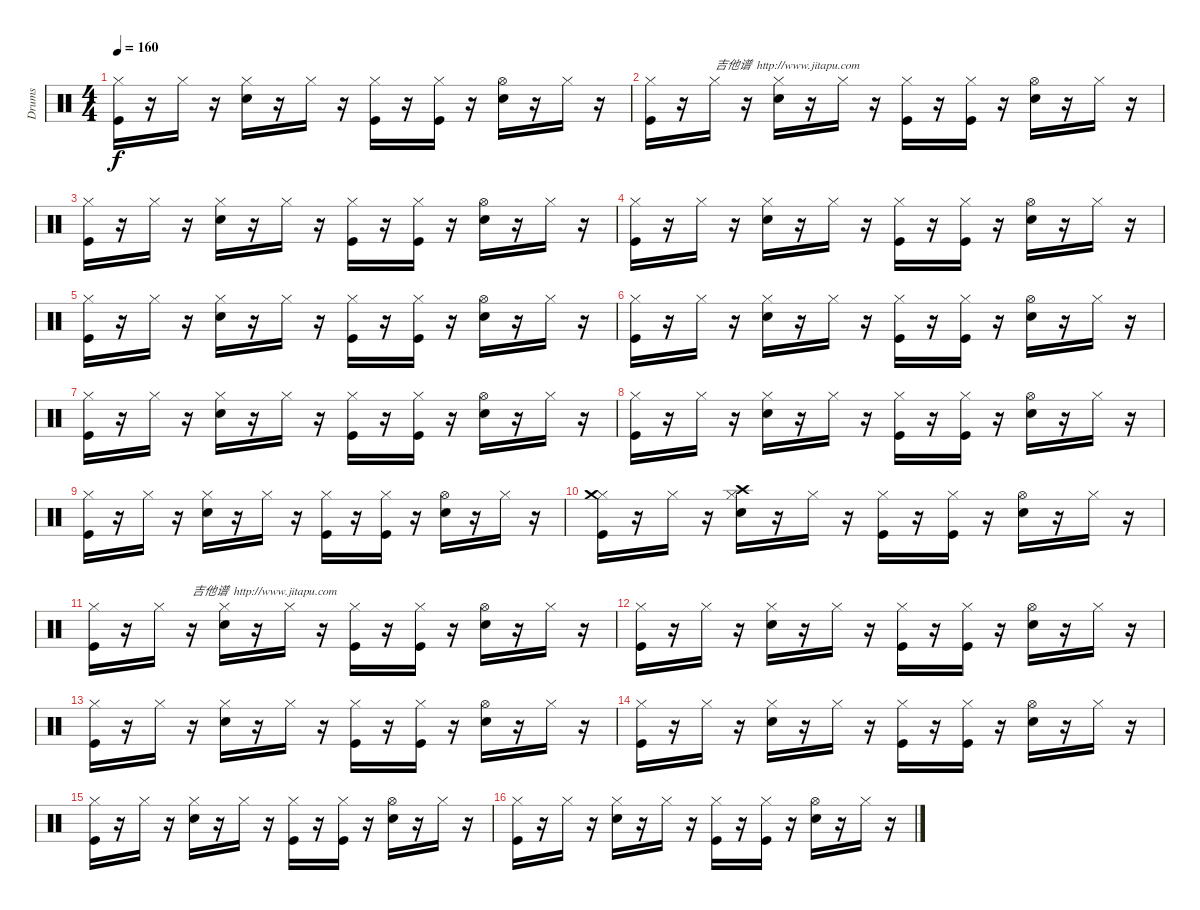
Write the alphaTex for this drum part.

\track ("Drums" "Drums") {instrument percussion}
\staff {score}
\articulation defaults
\ts (4 4)
\tempo 160
\clef neutral
\ks c
("Hi-Hat (closed)" "Kick (hit)").16{dy f} r.16 "Hi-Hat (closed)".16 r.16 ("Hi-Hat (closed)" "Snare (hit) 2").16 r.16 "Hi-Hat (closed)".16 r.16 ("Hi-Hat (closed)" "Kick (hit)").16 r.16 ("Kick (hit)" "Hi-Hat (closed)").16 r.16 ("Hi-Hat (open)" "Snare (hit) 2").16 r.16 "Hi-Hat (closed)".16 r.16 |
("Hi-Hat (closed)" "Kick (hit)").16 r.16 "Hi-Hat (closed)".16{txt "吉他谱  http://www.jitapu.com"} r.16 ("Hi-Hat (closed)" "Snare (hit) 2").16 r.16 "Hi-Hat (closed)".16 r.16 ("Hi-Hat (closed)" "Kick (hit)").16 r.16 ("Kick (hit)" "Hi-Hat (closed)").16 r.16 ("Hi-Hat (open)" "Snare (hit) 2").16 r.16 "Hi-Hat (closed)".16 r.16 |
("Hi-Hat (closed)" "Kick (hit)").16 r.16 "Hi-Hat (closed)".16 r.16 ("Hi-Hat (closed)" "Snare (hit) 2").16 r.16 "Hi-Hat (closed)".16 r.16 ("Hi-Hat (closed)" "Kick (hit)").16 r.16 ("Kick (hit)" "Hi-Hat (closed)").16 r.16 ("Hi-Hat (open)" "Snare (hit) 2").16 r.16 "Hi-Hat (closed)".16 r.16 |
("Hi-Hat (closed)" "Kick (hit)").16 r.16 "Hi-Hat (closed)".16 r.16 ("Hi-Hat (closed)" "Snare (hit) 2").16 r.16 "Hi-Hat (closed)".16 r.16 ("Hi-Hat (closed)" "Kick (hit)").16 r.16 ("Kick (hit)" "Hi-Hat (closed)").16 r.16 ("Hi-Hat (open)" "Snare (hit) 2").16 r.16 "Hi-Hat (closed)".16 r.16 |
("Hi-Hat (closed)" "Kick (hit)").16 r.16 "Hi-Hat (closed)".16 r.16 ("Hi-Hat (closed)" "Snare (hit) 2").16 r.16 "Hi-Hat (closed)".16 r.16 ("Hi-Hat (closed)" "Kick (hit)").16 r.16 ("Kick (hit)" "Hi-Hat (closed)").16 r.16 ("Hi-Hat (open)" "Snare (hit) 2").16 r.16 "Hi-Hat (closed)".16 r.16 |
("Hi-Hat (closed)" "Kick (hit)").16 r.16 "Hi-Hat (closed)".16 r.16 ("Hi-Hat (closed)" "Snare (hit) 2").16 r.16 "Hi-Hat (closed)".16 r.16 ("Hi-Hat (closed)" "Kick (hit)").16 r.16 ("Kick (hit)" "Hi-Hat (closed)").16 r.16 ("Hi-Hat (open)" "Snare (hit) 2").16 r.16 "Hi-Hat (closed)".16 r.16 |
("Hi-Hat (closed)" "Kick (hit)").16 r.16 "Hi-Hat (closed)".16 r.16 ("Hi-Hat (closed)" "Snare (hit) 2").16 r.16 "Hi-Hat (closed)".16 r.16 ("Hi-Hat (closed)" "Kick (hit)").16 r.16 ("Kick (hit)" "Hi-Hat (closed)").16 r.16 ("Hi-Hat (open)" "Snare (hit) 2").16 r.16 "Hi-Hat (closed)".16 r.16 |
("Hi-Hat (closed)" "Kick (hit)").16 r.16 "Hi-Hat (closed)".16 r.16 ("Hi-Hat (closed)" "Snare (hit) 2").16 r.16 "Hi-Hat (closed)".16 r.16 ("Hi-Hat (closed)" "Kick (hit)").16 r.16 ("Kick (hit)" "Hi-Hat (closed)").16 r.16 ("Hi-Hat (open)" "Snare (hit) 2").16 r.16 "Hi-Hat (closed)".16 r.16 |
("Hi-Hat (closed)" "Kick (hit)").16 r.16 "Hi-Hat (closed)".16 r.16 ("Hi-Hat (closed)" "Snare (hit) 2").16 r.16 "Hi-Hat (closed)".16 r.16 ("Hi-Hat (closed)" "Kick (hit)").16 r.16 ("Kick (hit)" "Hi-Hat (closed)").16 r.16 ("Hi-Hat (open)" "Snare (hit) 2").16 r.16 "Hi-Hat (closed)".16 r.16 |
("Hi-Hat (closed)" "Kick (hit)" "Crash medium (hit)").16 r.16 "Hi-Hat (closed)".16 r.16 ("Hi-Hat (closed)" "Snare (hit) 2" "Crash high (hit)").16 r.16 "Hi-Hat (closed)".16 r.16 ("Hi-Hat (closed)" "Kick (hit)").16 r.16 ("Kick (hit)" "Hi-Hat (closed)").16 r.16 ("Hi-Hat (open)" "Snare (hit) 2").16 r.16 "Hi-Hat (closed)".16 r.16 |
("Hi-Hat (closed)" "Kick (hit)").16 r.16 "Hi-Hat (closed)".16 r.16{txt "吉他谱  http://www.jitapu.com"} ("Hi-Hat (closed)" "Snare (hit) 2").16 r.16 "Hi-Hat (closed)".16 r.16 ("Hi-Hat (closed)" "Kick (hit)").16 r.16 ("Kick (hit)" "Hi-Hat (closed)").16 r.16 ("Hi-Hat (open)" "Snare (hit) 2").16 r.16 "Hi-Hat (closed)".16 r.16 |
("Hi-Hat (closed)" "Kick (hit)").16 r.16 "Hi-Hat (closed)".16 r.16 ("Hi-Hat (closed)" "Snare (hit) 2").16 r.16 "Hi-Hat (closed)".16 r.16 ("Hi-Hat (closed)" "Kick (hit)").16 r.16 ("Kick (hit)" "Hi-Hat (closed)").16 r.16 ("Hi-Hat (open)" "Snare (hit) 2").16 r.16 "Hi-Hat (closed)".16 r.16 |
("Hi-Hat (closed)" "Kick (hit)").16 r.16 "Hi-Hat (closed)".16 r.16 ("Hi-Hat (closed)" "Snare (hit) 2").16 r.16 "Hi-Hat (closed)".16 r.16 ("Hi-Hat (closed)" "Kick (hit)").16 r.16 ("Kick (hit)" "Hi-Hat (closed)").16 r.16 ("Hi-Hat (open)" "Snare (hit) 2").16 r.16 "Hi-Hat (closed)".16 r.16 |
("Hi-Hat (closed)" "Kick (hit)").16 r.16 "Hi-Hat (closed)".16 r.16 ("Hi-Hat (closed)" "Snare (hit) 2").16 r.16 "Hi-Hat (closed)".16 r.16 ("Hi-Hat (closed)" "Kick (hit)").16 r.16 ("Kick (hit)" "Hi-Hat (closed)").16 r.16 ("Hi-Hat (open)" "Snare (hit) 2").16 r.16 "Hi-Hat (closed)".16 r.16 |
("Hi-Hat (closed)" "Kick (hit)").16 r.16 "Hi-Hat (closed)".16 r.16 ("Hi-Hat (closed)" "Snare (hit) 2").16 r.16 "Hi-Hat (closed)".16 r.16 ("Hi-Hat (closed)" "Kick (hit)").16 r.16 ("Kick (hit)" "Hi-Hat (closed)").16 r.16 ("Hi-Hat (open)" "Snare (hit) 2").16 r.16 "Hi-Hat (closed)".16 r.16 |
("Hi-Hat (closed)" "Kick (hit)").16 r.16 "Hi-Hat (closed)".16 r.16 ("Hi-Hat (closed)" "Snare (hit) 2").16 r.16 "Hi-Hat (closed)".16 r.16 ("Hi-Hat (closed)" "Kick (hit)").16 r.16 ("Kick (hit)" "Hi-Hat (closed)").16 r.16 ("Hi-Hat (open)" "Snare (hit) 2").16 r.16 "Hi-Hat (closed)".16 r.16
